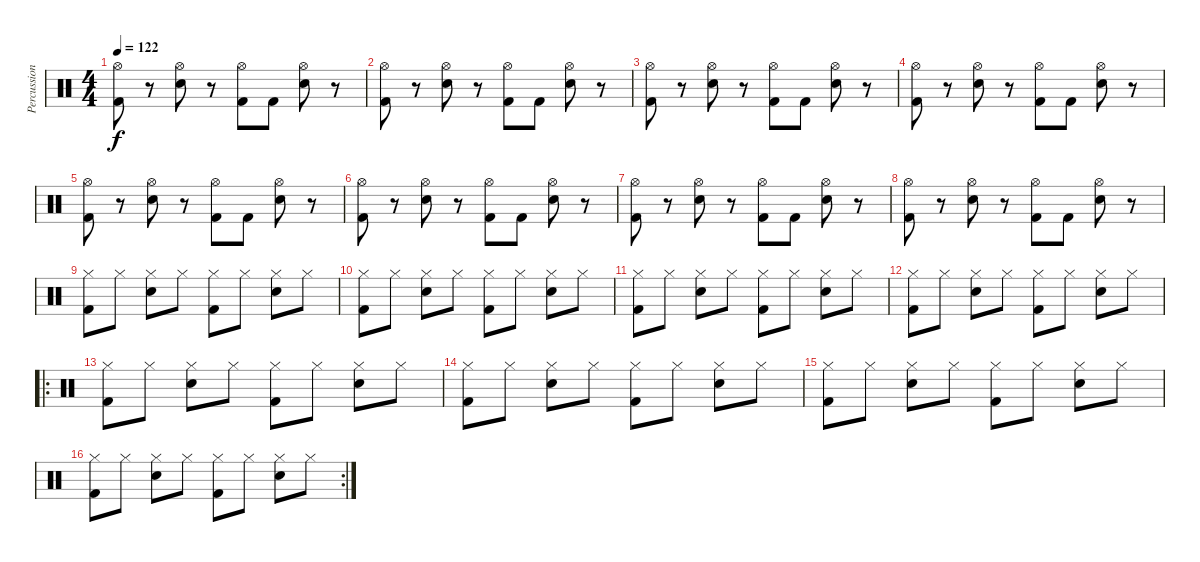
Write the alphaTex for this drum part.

\track ("Percussion" "Percussion") {instrument percussion}
\staff {score}
\articulation defaults
\ts (4 4)
\tempo 122
\clef neutral
\ks c
("Hi-Hat (open)" "Kick (hit) 2").8{dy f} r.8 ("Hi-Hat (open)" "Electric Snare (hit)").8 r.8 ("Hi-Hat (open)" "Kick (hit) 2").8 "Kick (hit) 2".8 ("Hi-Hat (open)" "Electric Snare (hit)").8 r.8 |
("Hi-Hat (open)" "Kick (hit) 2").8 r.8 ("Hi-Hat (open)" "Electric Snare (hit)").8 r.8 ("Hi-Hat (open)" "Kick (hit) 2").8 "Kick (hit) 2".8 ("Hi-Hat (open)" "Electric Snare (hit)").8 r.8 |
("Hi-Hat (open)" "Kick (hit) 2").8 r.8 ("Hi-Hat (open)" "Electric Snare (hit)").8 r.8 ("Hi-Hat (open)" "Kick (hit) 2").8 "Kick (hit) 2".8 ("Hi-Hat (open)" "Electric Snare (hit)").8 r.8 |
("Hi-Hat (open)" "Kick (hit) 2").8 r.8 ("Hi-Hat (open)" "Electric Snare (hit)").8 r.8 ("Hi-Hat (open)" "Kick (hit) 2").8 "Kick (hit) 2".8 ("Hi-Hat (open)" "Electric Snare (hit)").8 r.8 |
("Hi-Hat (open)" "Kick (hit) 2").8 r.8 ("Hi-Hat (open)" "Electric Snare (hit)").8 r.8 ("Hi-Hat (open)" "Kick (hit) 2").8 "Kick (hit) 2".8 ("Hi-Hat (open)" "Electric Snare (hit)").8 r.8 |
("Hi-Hat (open)" "Kick (hit) 2").8 r.8 ("Hi-Hat (open)" "Electric Snare (hit)").8 r.8 ("Hi-Hat (open)" "Kick (hit) 2").8 "Kick (hit) 2".8 ("Hi-Hat (open)" "Electric Snare (hit)").8 r.8 |
("Hi-Hat (open)" "Kick (hit) 2").8 r.8 ("Hi-Hat (open)" "Electric Snare (hit)").8 r.8 ("Hi-Hat (open)" "Kick (hit) 2").8 "Kick (hit) 2".8 ("Hi-Hat (open)" "Electric Snare (hit)").8 r.8 |
("Hi-Hat (open)" "Kick (hit) 2").8 r.8 ("Hi-Hat (open)" "Electric Snare (hit)").8 r.8 ("Hi-Hat (open)" "Kick (hit) 2").8 "Kick (hit) 2".8 ("Hi-Hat (open)" "Electric Snare (hit)").8 r.8 |
("Hi-Hat (closed)" "Kick (hit) 2").8 "Hi-Hat (closed)".8 ("Hi-Hat (closed)" "Electric Snare (hit)").8 "Hi-Hat (closed)".8 ("Hi-Hat (closed)" "Kick (hit) 2").8 "Hi-Hat (closed)".8 ("Hi-Hat (closed)" "Electric Snare (hit)").8 "Hi-Hat (closed)".8 |
("Hi-Hat (closed)" "Kick (hit) 2").8 "Hi-Hat (closed)".8 ("Hi-Hat (closed)" "Electric Snare (hit)").8 "Hi-Hat (closed)".8 ("Hi-Hat (closed)" "Kick (hit) 2").8 "Hi-Hat (closed)".8 ("Hi-Hat (closed)" "Electric Snare (hit)").8 "Hi-Hat (closed)".8 |
("Hi-Hat (closed)" "Kick (hit) 2").8 "Hi-Hat (closed)".8 ("Hi-Hat (closed)" "Electric Snare (hit)").8 "Hi-Hat (closed)".8 ("Hi-Hat (closed)" "Kick (hit) 2").8 "Hi-Hat (closed)".8 ("Hi-Hat (closed)" "Electric Snare (hit)").8 "Hi-Hat (closed)".8 |
("Hi-Hat (closed)" "Kick (hit) 2").8 "Hi-Hat (closed)".8 ("Hi-Hat (closed)" "Electric Snare (hit)").8 "Hi-Hat (closed)".8 ("Hi-Hat (closed)" "Kick (hit) 2").8 "Hi-Hat (closed)".8 ("Hi-Hat (closed)" "Electric Snare (hit)").8 "Hi-Hat (closed)".8 |
\ro
("Hi-Hat (closed)" "Kick (hit) 2").8 "Hi-Hat (closed)".8 ("Hi-Hat (closed)" "Electric Snare (hit)").8 "Hi-Hat (closed)".8 ("Hi-Hat (closed)" "Kick (hit) 2").8 "Hi-Hat (closed)".8 ("Hi-Hat (closed)" "Electric Snare (hit)").8 "Hi-Hat (closed)".8 |
("Hi-Hat (closed)" "Kick (hit) 2").8 "Hi-Hat (closed)".8 ("Hi-Hat (closed)" "Electric Snare (hit)").8 "Hi-Hat (closed)".8 ("Hi-Hat (closed)" "Kick (hit) 2").8 "Hi-Hat (closed)".8 ("Hi-Hat (closed)" "Electric Snare (hit)").8 "Hi-Hat (closed)".8 |
("Hi-Hat (closed)" "Kick (hit) 2").8 "Hi-Hat (closed)".8 ("Hi-Hat (closed)" "Electric Snare (hit)").8 "Hi-Hat (closed)".8 ("Hi-Hat (closed)" "Kick (hit) 2").8 "Hi-Hat (closed)".8 ("Hi-Hat (closed)" "Electric Snare (hit)").8 "Hi-Hat (closed)".8 |
\rc 2
("Hi-Hat (closed)" "Kick (hit) 2").8 "Hi-Hat (closed)".8 ("Hi-Hat (closed)" "Electric Snare (hit)").8 "Hi-Hat (closed)".8 ("Hi-Hat (closed)" "Kick (hit) 2").8 "Hi-Hat (closed)".8 ("Hi-Hat (closed)" "Electric Snare (hit)").8 "Hi-Hat (closed)".8
